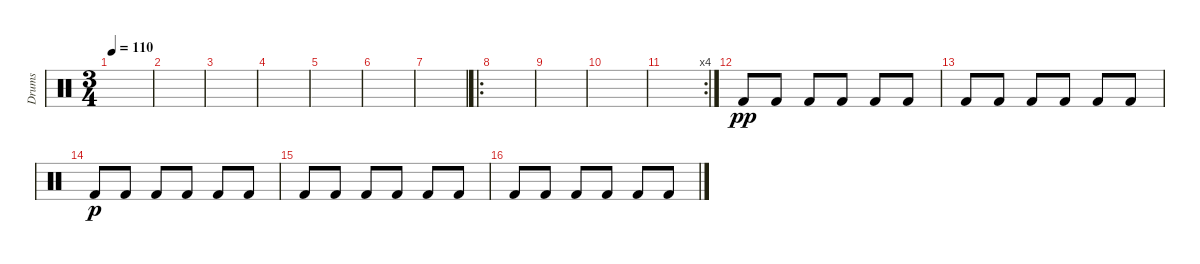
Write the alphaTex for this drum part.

\track ("Drums" "Drums") {instrument percussion}
\staff {score}
\articulation defaults
\ts (3 4)
\tempo 110
\clef neutral
\ks c
|
|
|
|
|
|
|
\ro
|
|
|
\rc 4
|
"Kick (hit) 2".8{dy pp} "Kick (hit) 2".8 "Kick (hit) 2".8 "Kick (hit) 2".8 "Kick (hit) 2".8 "Kick (hit) 2".8 |
"Kick (hit) 2".8 "Kick (hit) 2".8 "Kick (hit) 2".8 "Kick (hit) 2".8 "Kick (hit) 2".8 "Kick (hit) 2".8 |
"Kick (hit) 2".8{dy p} "Kick (hit) 2".8 "Kick (hit) 2".8 "Kick (hit) 2".8 "Kick (hit) 2".8 "Kick (hit) 2".8 |
"Kick (hit) 2".8 "Kick (hit) 2".8 "Kick (hit) 2".8 "Kick (hit) 2".8 "Kick (hit) 2".8 "Kick (hit) 2".8 |
"Kick (hit) 2".8 "Kick (hit) 2".8 "Kick (hit) 2".8 "Kick (hit) 2".8 "Kick (hit) 2".8 "Kick (hit) 2".8
